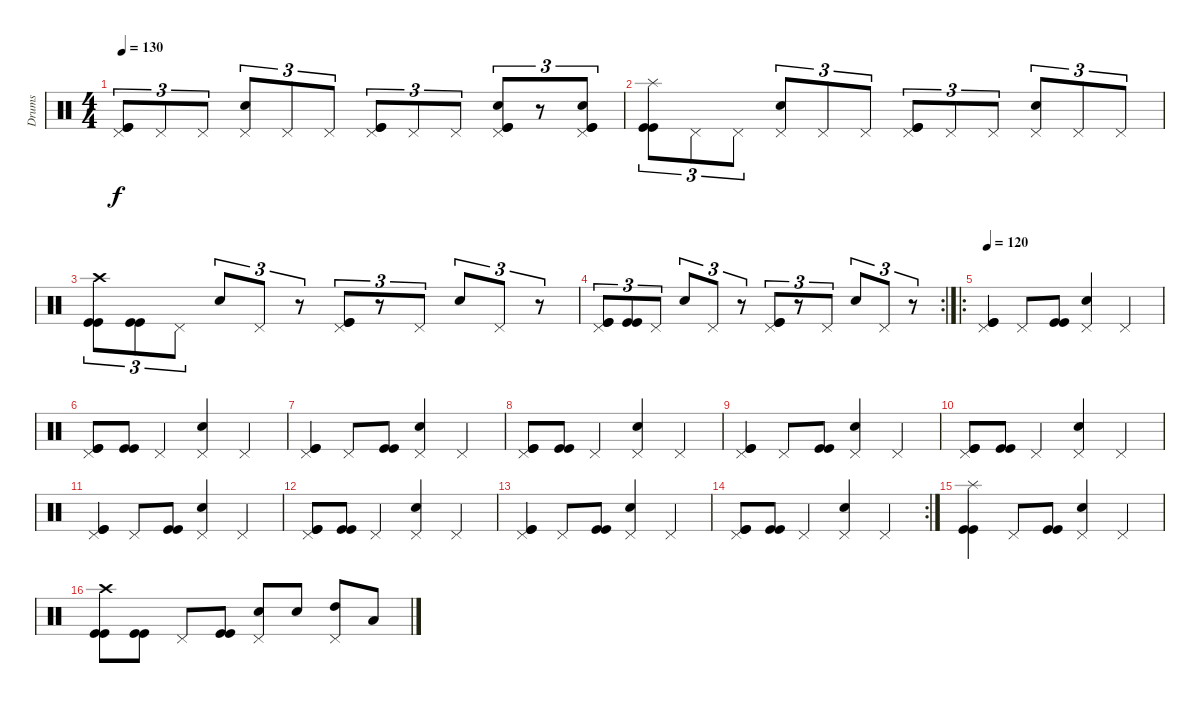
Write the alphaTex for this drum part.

\track ("Drums" "Drums") {instrument percussion}
\staff {score}
\articulation defaults
\ts (4 4)
\tempo 130
\clef neutral
\ks c
("Pedal Hi-Hat (hit)" "Kick (hit)" "Kick (hit)").8{tu (3 2) dy f} "Pedal Hi-Hat (hit)".8{tu (3 2)} "Pedal Hi-Hat (hit)".8{tu (3 2)} ("Pedal Hi-Hat (hit)" "Snare (hit) 2").8{tu (3 2)} "Pedal Hi-Hat (hit)".8{tu (3 2)} "Pedal Hi-Hat (hit)".8{tu (3 2)} ("Pedal Hi-Hat (hit)" "Kick (hit)" "Kick (hit)").8{tu (3 2)} "Pedal Hi-Hat (hit)".8{tu (3 2)} "Pedal Hi-Hat (hit)".8{tu (3 2)} ("Pedal Hi-Hat (hit)" "Snare (hit) 2" "Kick (hit)" "Kick (hit)").8{tu (3 2)} r.8{tu (3 2)} ("Pedal Hi-Hat (hit)" "Snare (hit) 2" "Kick (hit)" "Kick (hit)").8{tu (3 2)} |
("Splash (hit)" "Kick (hit)" "Kick (hit)").8{tu (3 2)} "Pedal Hi-Hat (hit)".8{tu (3 2)} "Pedal Hi-Hat (hit)".8{tu (3 2)} ("Pedal Hi-Hat (hit)" "Snare (hit) 2").8{tu (3 2)} "Pedal Hi-Hat (hit)".8{tu (3 2)} "Pedal Hi-Hat (hit)".8{tu (3 2)} ("Pedal Hi-Hat (hit)" "Kick (hit)" "Kick (hit)").8{tu (3 2)} "Pedal Hi-Hat (hit)".8{tu (3 2)} "Pedal Hi-Hat (hit)".8{tu (3 2)} ("Pedal Hi-Hat (hit)" "Snare (hit) 2").8{tu (3 2)} "Pedal Hi-Hat (hit)".8{tu (3 2)} "Pedal Hi-Hat (hit)".8{tu (3 2)} |
("Crash high (hit)" "Kick (hit)" "Kick (hit)").8{tu (3 2)} ("Kick (hit)" "Kick (hit)").8{tu (3 2)} "Pedal Hi-Hat (hit)".8{tu (3 2)} "Snare (hit) 2".8{tu (3 2)} "Pedal Hi-Hat (hit)".8{tu (3 2)} r.8{tu (3 2)} ("Pedal Hi-Hat (hit)" "Kick (hit)" "Kick (hit)").8{tu (3 2)} r.8{tu (3 2)} "Pedal Hi-Hat (hit)".8{tu (3 2)} "Snare (hit) 2".8{tu (3 2)} "Pedal Hi-Hat (hit)".8{tu (3 2)} r.8{tu (3 2)} |
\rc 2
("Pedal Hi-Hat (hit)" "Kick (hit)" "Kick (hit)").8{tu (3 2)} ("Kick (hit)" "Kick (hit)").8{tu (3 2)} "Pedal Hi-Hat (hit)".8{tu (3 2)} "Snare (hit) 2".8{tu (3 2)} "Pedal Hi-Hat (hit)".8{tu (3 2)} r.8{tu (3 2)} ("Pedal Hi-Hat (hit)" "Kick (hit)" "Kick (hit)").8{tu (3 2)} r.8{tu (3 2)} "Pedal Hi-Hat (hit)".8{tu (3 2)} "Snare (hit) 2".8{tu (3 2)} "Pedal Hi-Hat (hit)".8{tu (3 2)} r.8{tu (3 2)} |
\ro
\tempo 120
("Pedal Hi-Hat (hit)" "Kick (hit)" "Kick (hit)").4 "Pedal Hi-Hat (hit)".8 ("Kick (hit)" "Kick (hit)").8 ("Pedal Hi-Hat (hit)" "Snare (hit) 2").4 "Pedal Hi-Hat (hit)".4 |
("Pedal Hi-Hat (hit)" "Kick (hit)" "Kick (hit)").8 ("Kick (hit)" "Kick (hit)").8 "Pedal Hi-Hat (hit)".4 ("Pedal Hi-Hat (hit)" "Snare (hit) 2").4 "Pedal Hi-Hat (hit)".4 |
("Pedal Hi-Hat (hit)" "Kick (hit)" "Kick (hit)").4 "Pedal Hi-Hat (hit)".8 ("Kick (hit)" "Kick (hit)").8 ("Pedal Hi-Hat (hit)" "Snare (hit) 2").4 "Pedal Hi-Hat (hit)".4 |
("Pedal Hi-Hat (hit)" "Kick (hit)" "Kick (hit)").8 ("Kick (hit)" "Kick (hit)").8 "Pedal Hi-Hat (hit)".4 ("Pedal Hi-Hat (hit)" "Snare (hit) 2").4 "Pedal Hi-Hat (hit)".4 |
("Pedal Hi-Hat (hit)" "Kick (hit)" "Kick (hit)").4 "Pedal Hi-Hat (hit)".8 ("Kick (hit)" "Kick (hit)").8 ("Pedal Hi-Hat (hit)" "Snare (hit) 2").4 "Pedal Hi-Hat (hit)".4 |
("Pedal Hi-Hat (hit)" "Kick (hit)" "Kick (hit)").8 ("Kick (hit)" "Kick (hit)").8 "Pedal Hi-Hat (hit)".4 ("Pedal Hi-Hat (hit)" "Snare (hit) 2").4 "Pedal Hi-Hat (hit)".4 |
("Pedal Hi-Hat (hit)" "Kick (hit)" "Kick (hit)").4 "Pedal Hi-Hat (hit)".8 ("Kick (hit)" "Kick (hit)").8 ("Pedal Hi-Hat (hit)" "Snare (hit) 2").4 "Pedal Hi-Hat (hit)".4 |
("Pedal Hi-Hat (hit)" "Kick (hit)" "Kick (hit)").8 ("Kick (hit)" "Kick (hit)").8 "Pedal Hi-Hat (hit)".4 ("Pedal Hi-Hat (hit)" "Snare (hit) 2").4 "Pedal Hi-Hat (hit)".4 |
("Pedal Hi-Hat (hit)" "Kick (hit)" "Kick (hit)").4 "Pedal Hi-Hat (hit)".8 ("Kick (hit)" "Kick (hit)").8 ("Pedal Hi-Hat (hit)" "Snare (hit) 2").4 "Pedal Hi-Hat (hit)".4 |
\rc 2
("Pedal Hi-Hat (hit)" "Kick (hit)" "Kick (hit)").8 ("Kick (hit)" "Kick (hit)").8 "Pedal Hi-Hat (hit)".4 ("Pedal Hi-Hat (hit)" "Snare (hit) 2").4 "Pedal Hi-Hat (hit)".4 |
("Splash (hit)" "Kick (hit)" "Kick (hit)").4 "Pedal Hi-Hat (hit)".8 ("Kick (hit)" "Kick (hit)").8 ("Pedal Hi-Hat (hit)" "Snare (hit) 2").4 "Pedal Hi-Hat (hit)".4 |
("Crash high (hit)" "Kick (hit)" "Kick (hit)").8 ("Kick (hit)" "Kick (hit)").8 "Pedal Hi-Hat (hit)".8 ("Kick (hit)" "Kick (hit)").8 ("Pedal Hi-Hat (hit)" "Snare (hit) 2").8 "Snare (hit) 2".8 ("Pedal Hi-Hat (hit)" "High Tom (hit)").8 "Low Tom (hit)".8
